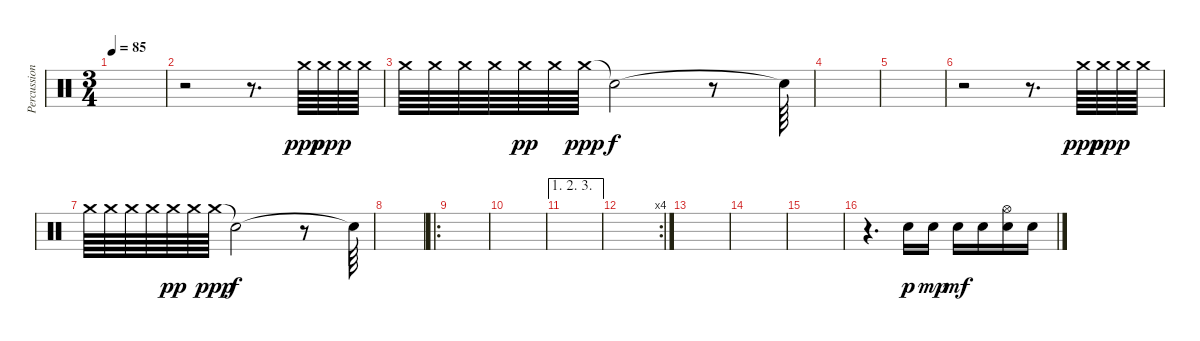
\track ("Percussion" "Percussion") {instrument percussion}
\staff {score}
\articulation defaults
\ts (3 4)
\tempo 85
\clef neutral
\ks c
|
r.2 r.8{d} "Crash medium (hit)".64{dy ppp} "Crash medium (hit)".64{dy pp} "Crash medium (hit)".64{dy p} "Crash medium (hit)".64 |
"Crash medium (hit)".64 "Crash medium (hit)".64 "Crash medium (hit)".64 "Crash medium (hit)".64 "Crash medium (hit)".64{dy pp} "Crash medium (hit)".64 "Crash medium (hit)".64{dy ppp} "Snare (hit)"{t}.2{dy f} r.8 "Snare (hit)"{t}.64 |
|
|
r.2 r.8{d} "Crash medium (hit)".64{dy ppp} "Crash medium (hit)".64{dy pp} "Crash medium (hit)".64{dy p} "Crash medium (hit)".64 |
"Crash medium (hit)".64 "Crash medium (hit)".64 "Crash medium (hit)".64 "Crash medium (hit)".64 "Crash medium (hit)".64{dy pp} "Crash medium (hit)".64 "Crash medium (hit)".64{dy ppp} "Snare (hit)"{t}.2{dy f} r.8 "Snare (hit)"{t}.64 |
|
\ro
|
|
\ae (1 2 3)
|
\rc 4
|
|
|
|
r.4{d} "Electric Snare (hit)".16{dy p} "Electric Snare (hit)".16{dy mp} "Electric Snare (hit)".16{dy mf} "Snare (hit) 2".16 ("Snare (hit) 2" "Hi-Hat (open)").16 "Electric Snare (hit)".16
